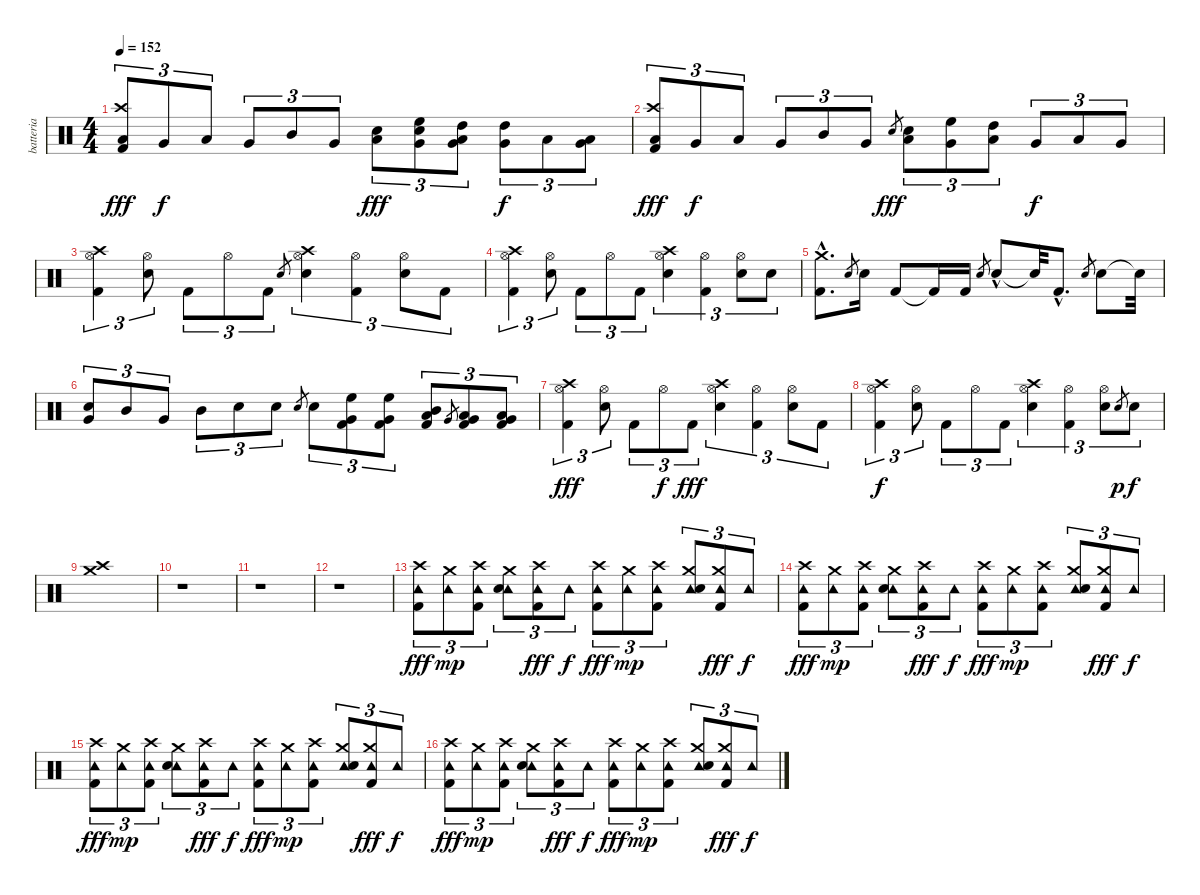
\track ("batteria" "batteria") {instrument percussion}
\staff {score}
\articulation defaults
\ts (4 4)
\tempo 152
\clef neutral
\ks c
("Low Floor Tom (hit)" "Crash high (hit)" "Kick (hit) 2").8{tu (3 2) dy fff} "Very Low Tom (hit)".8{tu (3 2) dy f} "Low Floor Tom (hit)".8{tu (3 2)} "Very Low Tom (hit)".8{tu (3 2)} "Mid Tom (hit)".8{tu (3 2)} "Very Low Tom (hit)".8{tu (3 2)} ("Low Tom (hit)" "Electric Snare (hit)").8{tu (3 2) dy fff} ("Very Low Tom (hit)" "High Floor Tom (hit)" "Electric Snare (hit)").8{tu (3 2)} ("Low Floor Tom (hit)" "High Tom (hit)" "Very Low Tom (hit)").8{tu (3 2)} ("Very Low Tom (hit)" "High Tom (hit)").8{tu (3 2) dy f} "Low Tom (hit)".8{tu (3 2)} ("Very Low Tom (hit)" "Low Floor Tom (hit)").8{tu (3 2)} |
("Low Floor Tom (hit)" "Crash high (hit)" "Kick (hit) 2").8{tu (3 2) dy fff} "Very Low Tom (hit)".8{tu (3 2) dy f} "Low Floor Tom (hit)".8{tu (3 2)} "Very Low Tom (hit)".8{tu (3 2)} "Mid Tom (hit)".8{tu (3 2)} "Very Low Tom (hit)".8{tu (3 2)} "Electric Snare (hit)".8{gr dy fff} ("Low Tom (hit)" "Electric Snare (hit)").8{tu (3 2)} ("Very Low Tom (hit)" "High Floor Tom (hit)").8{tu (3 2)} ("Low Floor Tom (hit)" "High Tom (hit)").8{tu (3 2)} "Very Low Tom (hit)".8{tu (3 2) dy f} "Low Tom (hit)".8{tu (3 2)} "Very Low Tom (hit)".8{tu (3 2)} |
("Hi-Hat (open)" "Crash high (hit)" "Kick (hit) 2").4{tu (3 2)} ("Hi-Hat (open)" "Electric Snare (hit)").8{tu (3 2)} "Kick (hit) 2".8{tu (3 2)} "Hi-Hat (open)".8{tu (3 2)} "Kick (hit) 2".8{tu (3 2)} "Electric Snare (hit)".8{gr} ("Hi-Hat (open)" "Crash high (hit)" "Electric Snare (hit)").4{tu (3 2)} ("Hi-Hat (open)" "Kick (hit) 2").4{tu (3 2)} ("Hi-Hat (open)" "Electric Snare (hit)").8{tu (3 2)} "Kick (hit) 2".8{tu (3 2)} |
("Hi-Hat (open)" "Crash high (hit)" "Kick (hit) 2").4{tu (3 2)} ("Hi-Hat (open)" "Electric Snare (hit)").8{tu (3 2)} "Kick (hit) 2".8{tu (3 2)} "Hi-Hat (open)".8{tu (3 2)} "Kick (hit) 2".8{tu (3 2)} ("Hi-Hat (open)" "Crash high (hit)" "Electric Snare (hit)").4{tu (3 2)} ("Hi-Hat (open)" "Kick (hit) 2").4{tu (3 2)} ("Hi-Hat (open)" "Electric Snare (hit)").8{tu (3 2)} "Electric Snare (hit)".8{tu (3 2)} |
("Crash medium (hit)"{hac} "Kick (hit) 2"{hac}).8{d} "Electric Snare (hit)".8{gr} "Electric Snare (hit)".16 "Kick (hit) 2".8 "Kick (hit) 2"{t}.16 "Kick (hit) 2".16 "Electric Snare (hit)".8{gr} "Electric Snare (hit)"{hac}.8 "Electric Snare (hit)"{t}.32 "Kick (hit) 2"{hac}.8{d} "Electric Snare (hit)".8{gr} "Electric Snare (hit)".8 "Electric Snare (hit)"{t}.32 |
("Very Low Tom (hit)" "Electric Snare (hit)").8{tu (3 2)} "Mid Tom (hit)".8{tu (3 2)} "Very Low Tom (hit)".8{tu (3 2)} "Mid Tom (hit)".8{tu (3 2)} "Electric Snare (hit)".8{tu (3 2)} "Electric Snare (hit)".8{tu (3 2)} "Electric Snare (hit)".8{gr} "Electric Snare (hit)".8{tu (3 2)} ("Very Low Tom (hit)" "High Floor Tom (hit)" "Kick (hit) 2").8{tu (3 2)} ("Very Low Tom (hit)" "High Floor Tom (hit)" "Kick (hit) 2").8{tu (3 2)} ("Low Tom (hit)" "Mid Tom (hit)" "Kick (hit) 2").8{tu (3 2)} "Very Low Tom (hit)".8{gr} ("Low Tom (hit)" "Very Low Tom (hit)" "Kick (hit) 2").8{tu (3 2)} ("Low Floor Tom (hit)" "Very Low Tom (hit)" "Kick (hit) 2").8{tu (3 2)} |
("Hi-Hat (open)" "Crash high (hit)" "Kick (hit) 2").4{tu (3 2) dy fff} ("Hi-Hat (open)" "Electric Snare (hit)").8{tu (3 2)} "Kick (hit) 2".8{tu (3 2)} "Hi-Hat (open)".8{tu (3 2) dy f} "Kick (hit) 2".8{tu (3 2) dy fff} ("Hi-Hat (open)" "Crash high (hit)" "Electric Snare (hit)").4{tu (3 2)} ("Hi-Hat (open)" "Kick (hit) 2").4{tu (3 2)} ("Hi-Hat (open)" "Electric Snare (hit)").8{tu (3 2)} "Kick (hit) 2".8{tu (3 2)} |
("Hi-Hat (open)" "Crash high (hit)" "Kick (hit) 2").4{tu (3 2) dy f} ("Hi-Hat (open)" "Electric Snare (hit)").8{tu (3 2)} "Kick (hit) 2".8{tu (3 2)} "Hi-Hat (open)".8{tu (3 2)} "Kick (hit) 2".8{tu (3 2)} ("Hi-Hat (open)" "Crash high (hit)" "Electric Snare (hit)").4{tu (3 2)} ("Hi-Hat (open)" "Kick (hit) 2").4{tu (3 2)} ("Hi-Hat (open)" "Electric Snare (hit)").8{tu (3 2)} "Electric Snare (hit)"{h}.8{gr dy p} "Electric Snare (hit)".8{tu (3 2) dy f} |
("Crash high (hit)" "Crash medium (hit)").1 |
r.1 |
r.1 |
r.1 |
("Tambourine (hit)" "Crash high (hit)" "Kick (hit) 2").8{tu (3 2) dy fff} ("Tambourine (hit)" "Crash medium (hit)").8{tu (3 2) dy mp} ("Tambourine (hit)" "Crash high (hit)" "Kick (hit) 2").8{tu (3 2)} ("Tambourine (hit)" "Crash medium (hit)" "Electric Snare (hit)").8{tu (3 2)} ("Tambourine (hit)" "Crash high (hit)" "Kick (hit) 2").8{tu (3 2) dy fff} "Tambourine (hit)".8{tu (3 2) dy f} ("Tambourine (hit)" "Crash high (hit)" "Kick (hit) 2").8{tu (3 2) dy fff} ("Tambourine (hit)" "Crash medium (hit)").8{tu (3 2) dy mp} ("Tambourine (hit)" "Crash high (hit)" "Kick (hit) 2").8{tu (3 2)} ("Tambourine (hit)" "Crash medium (hit)" "Electric Snare (hit)").8{tu (3 2)} ("Tambourine (hit)" "Crash medium (hit)" "Kick (hit) 2").8{tu (3 2) dy fff} "Tambourine (hit)".8{tu (3 2) dy f} |
("Tambourine (hit)" "Crash high (hit)" "Kick (hit) 2").8{tu (3 2) dy fff} ("Tambourine (hit)" "Crash medium (hit)").8{tu (3 2) dy mp} ("Tambourine (hit)" "Crash high (hit)" "Kick (hit) 2").8{tu (3 2)} ("Tambourine (hit)" "Crash medium (hit)" "Electric Snare (hit)").8{tu (3 2)} ("Tambourine (hit)" "Crash high (hit)" "Kick (hit) 2").8{tu (3 2) dy fff} "Tambourine (hit)".8{tu (3 2) dy f} ("Tambourine (hit)" "Crash high (hit)" "Kick (hit) 2").8{tu (3 2) dy fff} ("Tambourine (hit)" "Crash medium (hit)").8{tu (3 2) dy mp} ("Tambourine (hit)" "Crash high (hit)" "Kick (hit) 2").8{tu (3 2)} ("Tambourine (hit)" "Crash medium (hit)" "Electric Snare (hit)").8{tu (3 2)} ("Tambourine (hit)" "Crash medium (hit)" "Kick (hit) 2").8{tu (3 2) dy fff} "Tambourine (hit)".8{tu (3 2) dy f} |
("Tambourine (hit)" "Crash high (hit)" "Kick (hit) 2").8{tu (3 2) dy fff} ("Tambourine (hit)" "Crash medium (hit)").8{tu (3 2) dy mp} ("Tambourine (hit)" "Crash high (hit)" "Kick (hit) 2").8{tu (3 2)} ("Tambourine (hit)" "Crash medium (hit)" "Electric Snare (hit)").8{tu (3 2)} ("Tambourine (hit)" "Crash high (hit)" "Kick (hit) 2").8{tu (3 2) dy fff} "Tambourine (hit)".8{tu (3 2) dy f} ("Tambourine (hit)" "Crash high (hit)" "Kick (hit) 2").8{tu (3 2) dy fff} ("Tambourine (hit)" "Crash medium (hit)").8{tu (3 2) dy mp} ("Tambourine (hit)" "Crash high (hit)" "Kick (hit) 2").8{tu (3 2)} ("Tambourine (hit)" "Crash medium (hit)" "Electric Snare (hit)").8{tu (3 2)} ("Tambourine (hit)" "Crash medium (hit)" "Kick (hit) 2").8{tu (3 2) dy fff} "Tambourine (hit)".8{tu (3 2) dy f} |
("Tambourine (hit)" "Crash high (hit)" "Kick (hit) 2").8{tu (3 2) dy fff} ("Tambourine (hit)" "Crash medium (hit)").8{tu (3 2) dy mp} ("Tambourine (hit)" "Crash high (hit)" "Kick (hit) 2").8{tu (3 2)} ("Tambourine (hit)" "Crash medium (hit)" "Electric Snare (hit)").8{tu (3 2)} ("Tambourine (hit)" "Crash high (hit)" "Kick (hit) 2").8{tu (3 2) dy fff} "Tambourine (hit)".8{tu (3 2) dy f} ("Tambourine (hit)" "Crash high (hit)" "Kick (hit) 2").8{tu (3 2) dy fff} ("Tambourine (hit)" "Crash medium (hit)").8{tu (3 2) dy mp} ("Tambourine (hit)" "Crash high (hit)" "Kick (hit) 2").8{tu (3 2)} ("Tambourine (hit)" "Crash medium (hit)" "Electric Snare (hit)").8{tu (3 2)} ("Tambourine (hit)" "Crash medium (hit)" "Kick (hit) 2").8{tu (3 2) dy fff} "Tambourine (hit)".8{tu (3 2) dy f}
